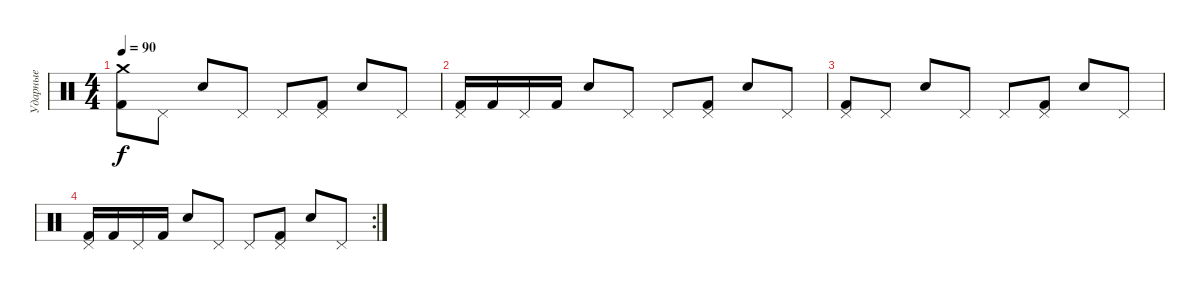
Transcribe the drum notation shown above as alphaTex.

\track ("Ударные" "Ударные") {instrument percussion}
\staff {score}
\articulation defaults
\ts (4 4)
\tempo 90
\clef neutral
\ks c
("Crash medium (hit)" "Kick (hit) 2").8{dy f} "Pedal Hi-Hat (hit)".8 "Electric Snare (hit)".8 "Pedal Hi-Hat (hit)".8 "Pedal Hi-Hat (hit)".8 ("Pedal Hi-Hat (hit)" "Kick (hit) 2").8 "Electric Snare (hit)".8 "Pedal Hi-Hat (hit)".8 |
("Pedal Hi-Hat (hit)" "Kick (hit) 2").16 "Kick (hit) 2".16 "Pedal Hi-Hat (hit)".16 "Kick (hit) 2".16 "Electric Snare (hit)".8 "Pedal Hi-Hat (hit)".8 "Pedal Hi-Hat (hit)".8 ("Pedal Hi-Hat (hit)" "Kick (hit) 2").8 "Electric Snare (hit)".8 "Pedal Hi-Hat (hit)".8 |
("Pedal Hi-Hat (hit)" "Kick (hit) 2").8 "Pedal Hi-Hat (hit)".8 "Electric Snare (hit)".8 "Pedal Hi-Hat (hit)".8 "Pedal Hi-Hat (hit)".8 ("Pedal Hi-Hat (hit)" "Kick (hit) 2").8 "Electric Snare (hit)".8 "Pedal Hi-Hat (hit)".8 |
\rc 2
("Pedal Hi-Hat (hit)" "Kick (hit) 2").16 "Kick (hit) 2".16 "Pedal Hi-Hat (hit)".16 "Kick (hit) 2".16 "Electric Snare (hit)".8 "Pedal Hi-Hat (hit)".8 "Pedal Hi-Hat (hit)".8 ("Pedal Hi-Hat (hit)" "Kick (hit) 2").8 "Electric Snare (hit)".8 "Pedal Hi-Hat (hit)".8
